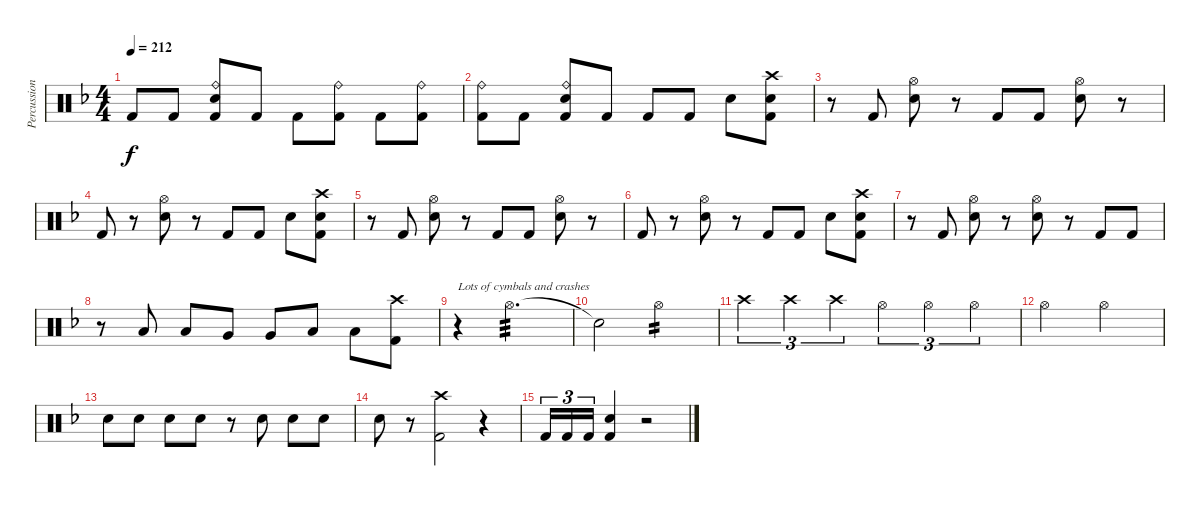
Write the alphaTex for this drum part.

\track ("Percussion" "Percussion") {instrument percussion}
\staff {score}
\articulation defaults
\ts (4 4)
\tempo 212
\clef neutral
\ks dminor "Kick (hit) 2".8{dy f} "Kick (hit) 2".8
("Ride (bell)" "Electric Snare (hit)" "Kick (hit) 2").8 "Kick (hit) 2".8 "Kick (hit) 2".8 ("Ride (bell)" "Kick (hit) 2").8 "Kick (hit) 2".8 ("Ride (bell)" "Kick (hit) 2").8 |
("Ride (bell)" "Kick (hit) 2").8 "Kick (hit) 2".8 ("Ride (bell)" "Electric Snare (hit)" "Kick (hit) 2").8 "Kick (hit) 2".8 "Kick (hit) 2".8 "Kick (hit) 2".8 "Electric Snare (hit)".8 ("Crash high (hit)" "Electric Snare (hit)" "Kick (hit) 2").8 |
r.8 "Kick (hit) 2".8 ("Hi-Hat (open)" "Electric Snare (hit)").8 r.8 "Kick (hit) 2".8 "Kick (hit) 2".8 ("Hi-Hat (open)" "Electric Snare (hit)").8 r.8 |
"Kick (hit) 2".8 r.8 ("Hi-Hat (open)" "Electric Snare (hit)").8 r.8 "Kick (hit) 2".8 "Kick (hit) 2".8 "Electric Snare (hit)".8 ("Crash high (hit)" "Electric Snare (hit)" "Kick (hit) 2").8 |
r.8 "Kick (hit) 2".8 ("Hi-Hat (open)" "Electric Snare (hit)").8 r.8 "Kick (hit) 2".8 "Kick (hit) 2".8 ("Hi-Hat (open)" "Electric Snare (hit)").8 r.8 |
"Kick (hit) 2".8 r.8 ("Hi-Hat (open)" "Electric Snare (hit)").8 r.8 "Kick (hit) 2".8 "Kick (hit) 2".8 "Electric Snare (hit)".8 ("Crash high (hit)" "Electric Snare (hit)" "Kick (hit) 2").8 |
r.8 "Kick (hit) 2".8 ("Hi-Hat (open)" "Electric Snare (hit)").8 r.8 ("Hi-Hat (open)" "Electric Snare (hit)").8 r.8 "Kick (hit) 2".8 "Kick (hit) 2".8 |
r.8 "Low Tom (hit)".8 "Low Tom (hit)".8 "Very Low Tom (hit)".8 "Very Low Tom (hit)".8 "Low Floor Tom (hit)".8 "Low Floor Tom (hit)".8 ("Crash high (hit)" "Kick (hit) 2").8 |
r.4{txt "Lots of cymbals and crashes"} "Hi-Hat (open)".2{d tp 3} |
"Snare (hit)"{t}.2 "Hi-Hat (open)".2{tp 2} |
"Crash high (hit)".4{tu (3 2)} "Crash high (hit)".4{tu (3 2)} "Crash high (hit)".4{tu (3 2)} "Hi-Hat (open)".4{tu (3 2)} "Hi-Hat (open)".4{tu (3 2)} "Hi-Hat (open)".4{tu (3 2)} |
"Hi-Hat (open)".2 "Hi-Hat (open)".2 |
"Electric Snare (hit)".8 "Electric Snare (hit)".8 "Electric Snare (hit)".8 "Electric Snare (hit)".8 r.8 "Electric Snare (hit)".8 "Electric Snare (hit)".8 "Electric Snare (hit)".8 |
"Electric Snare (hit)".8 r.8 ("Crash high (hit)" "Kick (hit) 2").2 r.4 |
"Kick (hit) 2".16{tu (3 2)} "Kick (hit) 2".16{tu (3 2)} "Kick (hit) 2".16{tu (3 2)} ("Electric Snare (hit)" "Kick (hit) 2").4 r.2
